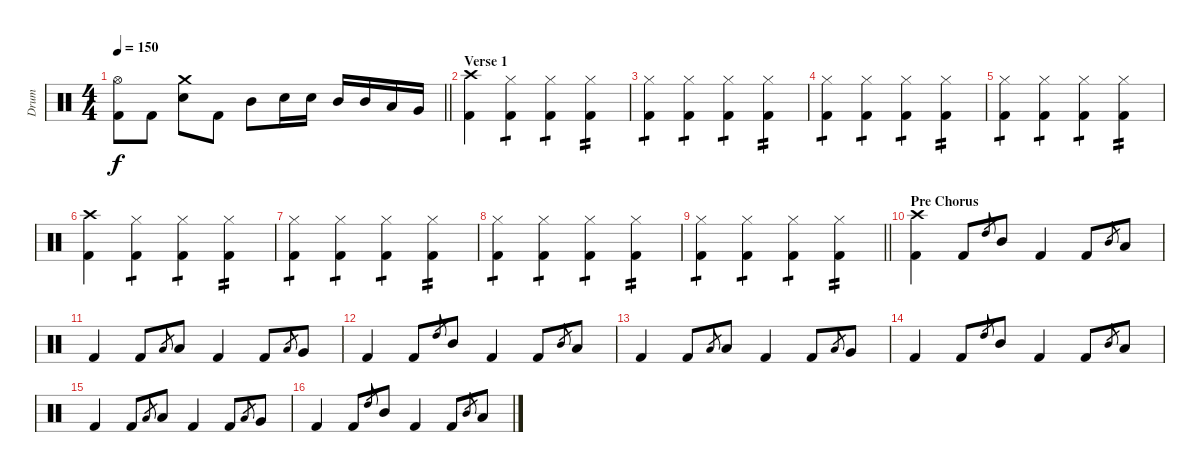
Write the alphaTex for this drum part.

\track ("Drum" "Drum") {instrument percussion}
\staff {score}
\articulation defaults
\ts (4 4)
\tempo 150
\clef neutral
\barLineRight lightlight
\ks c
("Kick (hit) 2" "Hi-Hat (open)").8{dy f} "Kick (hit) 2".8 ("Electric Snare (hit)" "Crash medium (hit)").8 "Kick (hit) 2".8 "Mid Tom (hit)".8 "Electric Snare (hit)".16 "Electric Snare (hit)".16 "Mid Tom (hit)".16 "Mid Tom (hit)".16 "Low Tom (hit)".16 "Very Low Tom (hit)".16 |
\section ("" "Verse 1")
("Kick (hit) 2" "Crash high (hit)").4 ("Kick (hit) 2" "Hi-Hat (closed)").4{tp 1} ("Kick (hit) 2" "Hi-Hat (closed)").4{tp 1} ("Kick (hit) 2" "Hi-Hat (closed)").4{tp 2} |
("Kick (hit) 2" "Hi-Hat (closed)").4{tp 1} ("Kick (hit) 2" "Hi-Hat (closed)").4{tp 1} ("Kick (hit) 2" "Hi-Hat (closed)").4{tp 1} ("Kick (hit) 2" "Hi-Hat (closed)").4{tp 2} |
("Kick (hit) 2" "Hi-Hat (closed)").4{tp 1} ("Kick (hit) 2" "Hi-Hat (closed)").4{tp 1} ("Kick (hit) 2" "Hi-Hat (closed)").4{tp 1} ("Kick (hit) 2" "Hi-Hat (closed)").4{tp 2} |
("Kick (hit) 2" "Hi-Hat (closed)").4{tp 1} ("Kick (hit) 2" "Hi-Hat (closed)").4{tp 1} ("Kick (hit) 2" "Hi-Hat (closed)").4{tp 1} ("Kick (hit) 2" "Hi-Hat (closed)").4{tp 2} |
("Kick (hit) 2" "Crash high (hit)").4 ("Kick (hit) 2" "Hi-Hat (closed)").4{tp 1} ("Kick (hit) 2" "Hi-Hat (closed)").4{tp 1} ("Kick (hit) 2" "Hi-Hat (closed)").4{tp 2} |
("Kick (hit) 2" "Hi-Hat (closed)").4{tp 1} ("Kick (hit) 2" "Hi-Hat (closed)").4{tp 1} ("Kick (hit) 2" "Hi-Hat (closed)").4{tp 1} ("Kick (hit) 2" "Hi-Hat (closed)").4{tp 2} |
("Kick (hit) 2" "Hi-Hat (closed)").4{tp 1} ("Kick (hit) 2" "Hi-Hat (closed)").4{tp 1} ("Kick (hit) 2" "Hi-Hat (closed)").4{tp 1} ("Kick (hit) 2" "Hi-Hat (closed)").4{tp 2} |
\barLineRight lightlight
("Kick (hit) 2" "Hi-Hat (closed)").4{tp 1} ("Kick (hit) 2" "Hi-Hat (closed)").4{tp 1} ("Kick (hit) 2" "Hi-Hat (closed)").4{tp 1} ("Kick (hit) 2" "Hi-Hat (closed)").4{tp 2} |
\section ("" "Pre Chorus")
("Kick (hit) 2" "Crash high (hit)").4 "Kick (hit) 2".8 "High Tom (hit)".8{gr} "Mid Tom (hit)".8 "Kick (hit) 2".4 "Kick (hit) 2".8 "Mid Tom (hit)".8{gr} "Low Tom (hit)".8 |
"Kick (hit) 2".4 "Kick (hit) 2".8 "Low Tom (hit)".8{gr} "Low Tom (hit)".8 "Kick (hit) 2".4 "Kick (hit) 2".8 "Low Tom (hit)".8{gr} "Very Low Tom (hit)".8 |
"Kick (hit) 2".4 "Kick (hit) 2".8 "High Tom (hit)".8{gr} "Mid Tom (hit)".8 "Kick (hit) 2".4 "Kick (hit) 2".8 "Mid Tom (hit)".8{gr} "Low Tom (hit)".8 |
"Kick (hit) 2".4 "Kick (hit) 2".8 "Low Tom (hit)".8{gr} "Low Tom (hit)".8 "Kick (hit) 2".4 "Kick (hit) 2".8 "Low Tom (hit)".8{gr} "Very Low Tom (hit)".8 |
"Kick (hit) 2".4 "Kick (hit) 2".8 "High Tom (hit)".8{gr} "Mid Tom (hit)".8 "Kick (hit) 2".4 "Kick (hit) 2".8 "Mid Tom (hit)".8{gr} "Low Tom (hit)".8 |
"Kick (hit) 2".4 "Kick (hit) 2".8 "Low Tom (hit)".8{gr} "Low Tom (hit)".8 "Kick (hit) 2".4 "Kick (hit) 2".8 "Low Tom (hit)".8{gr} "Very Low Tom (hit)".8 |
"Kick (hit) 2".4 "Kick (hit) 2".8 "High Tom (hit)".8{gr} "Mid Tom (hit)".8 "Kick (hit) 2".4 "Kick (hit) 2".8 "Mid Tom (hit)".8{gr} "Low Tom (hit)".8
